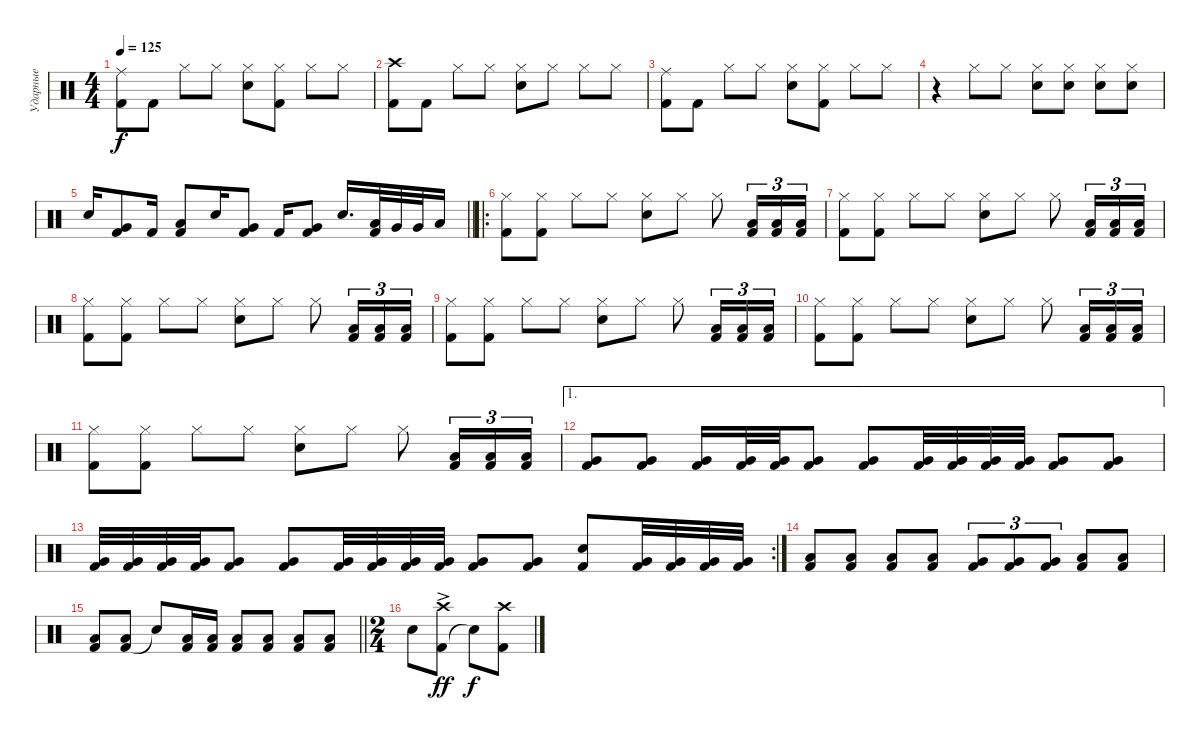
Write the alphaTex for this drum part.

\track ("Ударные" "Ударные") {instrument percussion}
\staff
\articulation defaults
\ts (4 4)
\tempo 125
\clef neutral
\ks c
("Kick (hit) 2" "Ride (middle)").8{dy f} "Kick (hit) 2".8 "Hi-Hat (closed)".8 "Hi-Hat (closed)".8 ("Snare (hit) 2" "Hi-Hat (closed)").8 ("Kick (hit) 2" "Hi-Hat (closed)").8 "Hi-Hat (closed)".8 "Hi-Hat (closed)".8 |
("Kick (hit) 2" "Crash high (hit)").8 "Kick (hit) 2".8 "Hi-Hat (closed)".8 "Hi-Hat (closed)".8 ("Snare (hit) 2" "Hi-Hat (closed)").8 "Hi-Hat (closed)".8 "Hi-Hat (closed)".8 "Hi-Hat (closed)".8 |
("Kick (hit) 2" "Ride (middle)").8 "Kick (hit) 2".8 "Hi-Hat (closed)".8 "Hi-Hat (closed)".8 ("Snare (hit) 2" "Hi-Hat (closed)").8 ("Kick (hit) 2" "Hi-Hat (closed)").8 "Hi-Hat (closed)".8 "Hi-Hat (closed)".8 |
r.4{volume 5} "Hi-Hat (closed)".8 "Hi-Hat (closed)".8 ("Snare (hit) 2" "Hi-Hat (closed)").8{volume 4} ("Snare (hit) 2" "Hi-Hat (closed)").8{volume 5} ("Snare (hit) 2" "Hi-Hat (closed)").8{volume 6} ("Snare (hit) 2" "Hi-Hat (closed)").8{volume 7} |
\barLineRight lightlight "Snare (hit) 2".16{volume 9}
("Kick (hit) 2" "Very Low Tom (hit)").8 "Kick (hit) 2".16 ("Kick (hit) 2" "Low Tom (hit)").8 "Snare (hit) 2".16 ("Kick (hit) 2" "Very Low Tom (hit)").8 "Kick (hit) 2".16 ("Kick (hit) 2" "Very Low Tom (hit)").8 "Snare (hit) 2".16{d} ("Kick (hit) 2" "Low Tom (hit)").32 "Very Low Tom (hit)".32 "Very Low Tom (hit)".32 "Low Floor Tom (hit)".16 |
\ro
("Kick (hit) 2" "Hi-Hat (closed)").8 ("Kick (hit) 2" "Hi-Hat (closed)").8 "Hi-Hat (closed)".8 "Hi-Hat (closed)".8 ("Snare (hit) 2" "Hi-Hat (closed)").8 "Hi-Hat (closed)".8 "Hi-Hat (closed)".8 ("Kick (hit) 2" "Low Tom (hit)").16{tu (3 2)} ("Kick (hit) 2" "Low Tom (hit)").16{tu (3 2)} ("Kick (hit) 2" "Low Tom (hit)").16{tu (3 2)} |
("Kick (hit) 2" "Hi-Hat (closed)").8 ("Kick (hit) 2" "Hi-Hat (closed)").8 "Hi-Hat (closed)".8 "Hi-Hat (closed)".8 ("Snare (hit) 2" "Hi-Hat (closed)").8 "Hi-Hat (closed)".8 "Hi-Hat (closed)".8 ("Kick (hit) 2" "Low Tom (hit)").16{tu (3 2)} ("Kick (hit) 2" "Low Tom (hit)").16{tu (3 2)} ("Kick (hit) 2" "Low Tom (hit)").16{tu (3 2)} |
("Kick (hit) 2" "Hi-Hat (closed)").8 ("Kick (hit) 2" "Hi-Hat (closed)").8 "Hi-Hat (closed)".8 "Hi-Hat (closed)".8 ("Snare (hit) 2" "Hi-Hat (closed)").8 "Hi-Hat (closed)".8 "Hi-Hat (closed)".8 ("Kick (hit) 2" "Low Tom (hit)").16{tu (3 2)} ("Kick (hit) 2" "Low Tom (hit)").16{tu (3 2)} ("Kick (hit) 2" "Low Tom (hit)").16{tu (3 2)} |
("Kick (hit) 2" "Hi-Hat (closed)").8 ("Kick (hit) 2" "Hi-Hat (closed)").8 "Hi-Hat (closed)".8 "Hi-Hat (closed)".8 ("Snare (hit) 2" "Hi-Hat (closed)").8 "Hi-Hat (closed)".8 "Hi-Hat (closed)".8 ("Kick (hit) 2" "Low Tom (hit)").16{tu (3 2)} ("Kick (hit) 2" "Low Tom (hit)").16{tu (3 2)} ("Kick (hit) 2" "Low Tom (hit)").16{tu (3 2)} |
("Kick (hit) 2" "Hi-Hat (closed)").8 ("Kick (hit) 2" "Hi-Hat (closed)").8 "Hi-Hat (closed)".8 "Hi-Hat (closed)".8 ("Snare (hit) 2" "Hi-Hat (closed)").8 "Hi-Hat (closed)".8 "Hi-Hat (closed)".8 ("Kick (hit) 2" "Low Tom (hit)").16{tu (3 2)} ("Kick (hit) 2" "Low Tom (hit)").16{tu (3 2)} ("Kick (hit) 2" "Low Tom (hit)").16{tu (3 2)} |
("Kick (hit) 2" "Hi-Hat (closed)").8 ("Kick (hit) 2" "Hi-Hat (closed)").8 "Hi-Hat (closed)".8 "Hi-Hat (closed)".8 ("Snare (hit) 2" "Hi-Hat (closed)").8 "Hi-Hat (closed)".8 "Hi-Hat (closed)".8 ("Kick (hit) 2" "Low Tom (hit)").16{tu (3 2)} ("Kick (hit) 2" "Low Tom (hit)").16{tu (3 2)} ("Kick (hit) 2" "Low Tom (hit)").16{tu (3 2)} |
\ae 1
("Kick (hit) 2" "Very Low Tom (hit)").8 ("Kick (hit) 2" "Very Low Tom (hit)").8 ("Kick (hit) 2" "Very Low Tom (hit)").16 ("Kick (hit) 2" "Very Low Tom (hit)").32 ("Kick (hit) 2" "Very Low Tom (hit)").32 ("Kick (hit) 2" "Very Low Tom (hit)").8 ("Kick (hit) 2" "Very Low Tom (hit)").8 ("Kick (hit) 2" "Very Low Tom (hit)").32 ("Kick (hit) 2" "Very Low Tom (hit)").32 ("Kick (hit) 2" "Very Low Tom (hit)").32 ("Kick (hit) 2" "Very Low Tom (hit)").32 ("Kick (hit) 2" "Very Low Tom (hit)").8 ("Kick (hit) 2" "Very Low Tom (hit)").8 |
\rc 2
("Kick (hit) 2" "Very Low Tom (hit)").32 ("Kick (hit) 2" "Very Low Tom (hit)").32 ("Kick (hit) 2" "Very Low Tom (hit)").32 ("Kick (hit) 2" "Very Low Tom (hit)").32 ("Kick (hit) 2" "Very Low Tom (hit)").8 ("Kick (hit) 2" "Very Low Tom (hit)").8 ("Kick (hit) 2" "Very Low Tom (hit)").32 ("Kick (hit) 2" "Very Low Tom (hit)").32 ("Kick (hit) 2" "Very Low Tom (hit)").32 ("Kick (hit) 2" "Very Low Tom (hit)").32 ("Kick (hit) 2" "Very Low Tom (hit)").8 ("Kick (hit) 2" "Very Low Tom (hit)").8 ("Kick (hit) 2" "Snare (hit) 2").8 ("Kick (hit) 2" "Very Low Tom (hit)").32 ("Kick (hit) 2" "Very Low Tom (hit)").32 ("Kick (hit) 2" "Very Low Tom (hit)").32 ("Kick (hit) 2" "Very Low Tom (hit)").32 |
("Kick (hit) 2" "Low Tom (hit)").8 ("Kick (hit) 2" "Low Tom (hit)").8 ("Kick (hit) 2" "Low Tom (hit)").8 ("Kick (hit) 2" "Low Tom (hit)").8 ("Kick (hit) 2" "Very Low Tom (hit)").8{tu (3 2)} ("Kick (hit) 2" "Very Low Tom (hit)").8{tu (3 2)} ("Kick (hit) 2" "Very Low Tom (hit)").8{tu (3 2)} ("Kick (hit) 2" "Low Floor Tom (hit)").8 ("Kick (hit) 2" "Low Floor Tom (hit)").8 |
\barLineRight lightlight
("Kick (hit) 2" "Low Floor Tom (hit)").8 ("Kick (hit) 2" "Low Floor Tom (hit)").8 "Snare (hit)"{t}.8 ("Kick (hit) 2" "Low Floor Tom (hit)").16 ("Kick (hit) 2" "Low Floor Tom (hit)").16 ("Kick (hit) 2" "Low Floor Tom (hit)").8 ("Kick (hit) 2" "Low Floor Tom (hit)").8 ("Kick (hit) 2" "Low Floor Tom (hit)").8 ("Kick (hit) 2" "Low Floor Tom (hit)").8 |
\ts (2 4)
"Snare (hit) 2".8 ("Kick (hit) 2" "Crash high (hit)"{ac}).8{dy ff} "Snare (hit)"{t}.8{dy f} ("Kick (hit) 2" "Crash high (hit)").8
